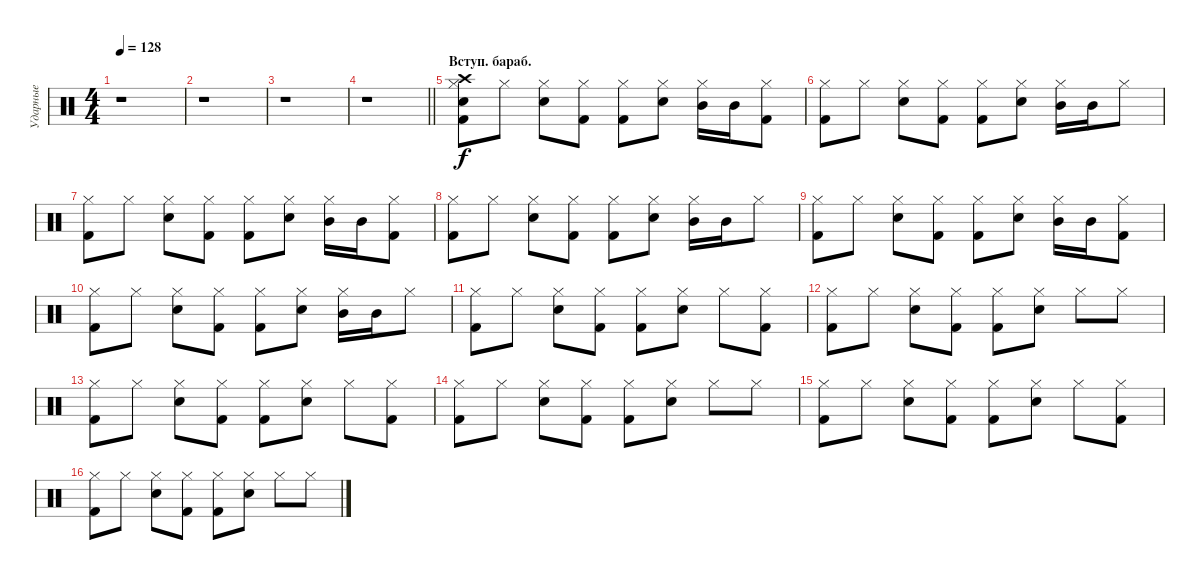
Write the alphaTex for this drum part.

\track ("Ударные" "Ударные") {instrument percussion}
\staff {score}
\articulation defaults
\ts (4 4)
\tempo 128
\clef neutral
\ks c
r.1{dy f} |
r.1 |
r.1 |
\barLineRight lightlight
r.1 |
\section ("" "Вступ. бараб.")
("Crash high (hit)" "Kick (hit) 2" "Snare (hit) 2" "Hi-Hat (closed)").8 "Hi-Hat (closed)".8 ("Snare (hit) 2" "Hi-Hat (closed)").8 ("Kick (hit) 2" "Hi-Hat (closed)").8 ("Kick (hit) 2" "Hi-Hat (closed)").8 ("Snare (hit) 2" "Hi-Hat (closed)").8 ("Mid Tom (hit)" "Hi-Hat (closed)").16 "Mid Tom (hit)".16 ("Kick (hit) 2" "Hi-Hat (closed)").8 |
("Kick (hit) 2" "Hi-Hat (closed)").8 "Hi-Hat (closed)".8 ("Snare (hit) 2" "Hi-Hat (closed)").8 ("Kick (hit) 2" "Hi-Hat (closed)").8 ("Kick (hit) 2" "Hi-Hat (closed)").8 ("Snare (hit) 2" "Hi-Hat (closed)").8 ("Mid Tom (hit)" "Hi-Hat (closed)").16 "Mid Tom (hit)".16 "Hi-Hat (closed)".8 |
("Kick (hit) 2" "Hi-Hat (closed)").8 "Hi-Hat (closed)".8 ("Snare (hit) 2" "Hi-Hat (closed)").8 ("Kick (hit) 2" "Hi-Hat (closed)").8 ("Kick (hit) 2" "Hi-Hat (closed)").8 ("Snare (hit) 2" "Hi-Hat (closed)").8 ("Mid Tom (hit)" "Hi-Hat (closed)").16 "Mid Tom (hit)".16 ("Kick (hit) 2" "Hi-Hat (closed)").8 |
("Kick (hit) 2" "Hi-Hat (closed)").8 "Hi-Hat (closed)".8 ("Snare (hit) 2" "Hi-Hat (closed)").8 ("Kick (hit) 2" "Hi-Hat (closed)").8 ("Kick (hit) 2" "Hi-Hat (closed)").8 ("Snare (hit) 2" "Hi-Hat (closed)").8 ("Mid Tom (hit)" "Hi-Hat (closed)").16 "Mid Tom (hit)".16 "Hi-Hat (closed)".8 |
("Kick (hit) 2" "Hi-Hat (closed)").8 "Hi-Hat (closed)".8 ("Snare (hit) 2" "Hi-Hat (closed)").8 ("Kick (hit) 2" "Hi-Hat (closed)").8 ("Kick (hit) 2" "Hi-Hat (closed)").8 ("Snare (hit) 2" "Hi-Hat (closed)").8 ("Mid Tom (hit)" "Hi-Hat (closed)").16 "Mid Tom (hit)".16 ("Kick (hit) 2" "Hi-Hat (closed)").8 |
("Kick (hit) 2" "Hi-Hat (closed)").8 "Hi-Hat (closed)".8 ("Snare (hit) 2" "Hi-Hat (closed)").8 ("Kick (hit) 2" "Hi-Hat (closed)").8 ("Kick (hit) 2" "Hi-Hat (closed)").8 ("Snare (hit) 2" "Hi-Hat (closed)").8 ("Mid Tom (hit)" "Hi-Hat (closed)").16 "Mid Tom (hit)".16 "Hi-Hat (closed)".8 |
("Kick (hit) 2" "Hi-Hat (closed)").8 "Hi-Hat (closed)".8 ("Snare (hit) 2" "Hi-Hat (closed)").8 ("Kick (hit) 2" "Hi-Hat (closed)").8 ("Kick (hit) 2" "Hi-Hat (closed)").8 ("Snare (hit) 2" "Hi-Hat (closed)").8 "Hi-Hat (closed)".8 ("Kick (hit) 2" "Hi-Hat (closed)").8 |
("Kick (hit) 2" "Hi-Hat (closed)").8 "Hi-Hat (closed)".8 ("Snare (hit) 2" "Hi-Hat (closed)").8 ("Kick (hit) 2" "Hi-Hat (closed)").8 ("Kick (hit) 2" "Hi-Hat (closed)").8 ("Snare (hit) 2" "Hi-Hat (closed)").8 "Hi-Hat (closed)".8 "Hi-Hat (closed)".8 |
("Kick (hit) 2" "Hi-Hat (closed)").8 "Hi-Hat (closed)".8 ("Snare (hit) 2" "Hi-Hat (closed)").8 ("Kick (hit) 2" "Hi-Hat (closed)").8 ("Kick (hit) 2" "Hi-Hat (closed)").8 ("Snare (hit) 2" "Hi-Hat (closed)").8 "Hi-Hat (closed)".8 ("Kick (hit) 2" "Hi-Hat (closed)").8 |
("Kick (hit) 2" "Hi-Hat (closed)").8 "Hi-Hat (closed)".8 ("Snare (hit) 2" "Hi-Hat (closed)").8 ("Kick (hit) 2" "Hi-Hat (closed)").8 ("Kick (hit) 2" "Hi-Hat (closed)").8 ("Snare (hit) 2" "Hi-Hat (closed)").8 "Hi-Hat (closed)".8 "Hi-Hat (closed)".8 |
("Kick (hit) 2" "Hi-Hat (closed)").8 "Hi-Hat (closed)".8 ("Snare (hit) 2" "Hi-Hat (closed)").8 ("Kick (hit) 2" "Hi-Hat (closed)").8 ("Kick (hit) 2" "Hi-Hat (closed)").8 ("Snare (hit) 2" "Hi-Hat (closed)").8 "Hi-Hat (closed)".8 ("Kick (hit) 2" "Hi-Hat (closed)").8 |
("Kick (hit) 2" "Hi-Hat (closed)").8 "Hi-Hat (closed)".8 ("Snare (hit) 2" "Hi-Hat (closed)").8 ("Kick (hit) 2" "Hi-Hat (closed)").8 ("Kick (hit) 2" "Hi-Hat (closed)").8 ("Snare (hit) 2" "Hi-Hat (closed)").8 "Hi-Hat (closed)".8 "Hi-Hat (closed)".8
